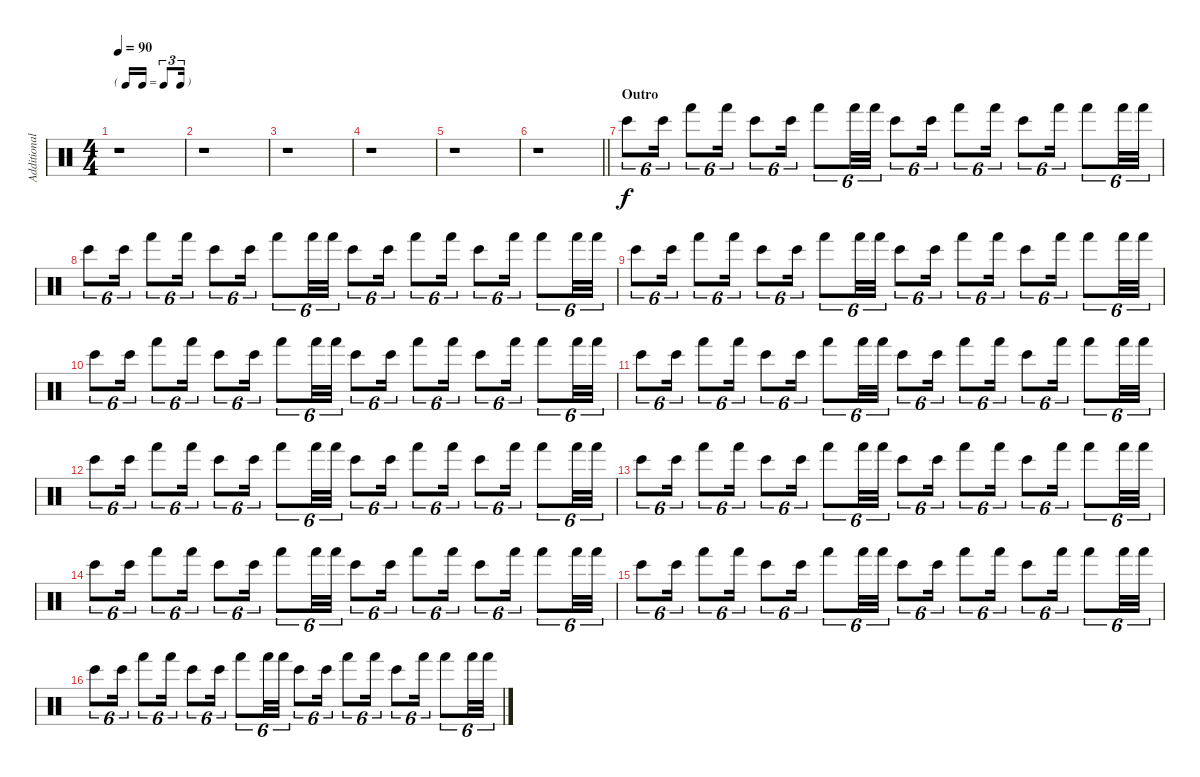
\track ("Additional Percussion" "Additional") {instrument percussion}
\staff {score}
\articulation defaults
\ts (4 4)
\tf triplet16th
\tempo 90
\clef neutral
\ks c
r.1{dy f} |
r.1 |
r.1 |
r.1 |
r.1 |
\barLineRight lightlight
r.1 |
\section ("" "Outro")
"Bongo High (hit)".8{tu (6 4)} "Bongo High (hit)".16{tu (6 4)} "Hand (hit)".8{tu (6 4)} "Hand (hit)".16{tu (6 4)} "Bongo High (hit)".8{tu (6 4)} "Bongo High (hit)".16{tu (6 4)} "Hand (hit)".8{tu (6 4)} "Hand (hit)".32{tu (6 4)} "Hand (hit)".32{tu (6 4)} "Bongo High (hit)".8{tu (6 4)} "Bongo High (hit)".16{tu (6 4)} "Hand (hit)".8{tu (6 4)} "Hand (hit)".16{tu (6 4)} "Bongo High (hit)".8{tu (6 4)} "Hand (hit)".16{tu (6 4)} "Hand (hit)".8{tu (6 4)} "Hand (hit)".32{tu (6 4)} "Hand (hit)".32{tu (6 4)} |
"Bongo High (hit)".8{tu (6 4)} "Bongo High (hit)".16{tu (6 4)} "Hand (hit)".8{tu (6 4)} "Hand (hit)".16{tu (6 4)} "Bongo High (hit)".8{tu (6 4)} "Bongo High (hit)".16{tu (6 4)} "Hand (hit)".8{tu (6 4)} "Hand (hit)".32{tu (6 4)} "Hand (hit)".32{tu (6 4)} "Bongo High (hit)".8{tu (6 4)} "Bongo High (hit)".16{tu (6 4)} "Hand (hit)".8{tu (6 4)} "Hand (hit)".16{tu (6 4)} "Bongo High (hit)".8{tu (6 4)} "Hand (hit)".16{tu (6 4)} "Hand (hit)".8{tu (6 4)} "Hand (hit)".32{tu (6 4)} "Hand (hit)".32{tu (6 4)} |
"Bongo High (hit)".8{tu (6 4)} "Bongo High (hit)".16{tu (6 4)} "Hand (hit)".8{tu (6 4)} "Hand (hit)".16{tu (6 4)} "Bongo High (hit)".8{tu (6 4)} "Bongo High (hit)".16{tu (6 4)} "Hand (hit)".8{tu (6 4)} "Hand (hit)".32{tu (6 4)} "Hand (hit)".32{tu (6 4)} "Bongo High (hit)".8{tu (6 4)} "Bongo High (hit)".16{tu (6 4)} "Hand (hit)".8{tu (6 4)} "Hand (hit)".16{tu (6 4)} "Bongo High (hit)".8{tu (6 4)} "Hand (hit)".16{tu (6 4)} "Hand (hit)".8{tu (6 4)} "Hand (hit)".32{tu (6 4)} "Hand (hit)".32{tu (6 4)} |
"Bongo High (hit)".8{tu (6 4)} "Bongo High (hit)".16{tu (6 4)} "Hand (hit)".8{tu (6 4)} "Hand (hit)".16{tu (6 4)} "Bongo High (hit)".8{tu (6 4)} "Bongo High (hit)".16{tu (6 4)} "Hand (hit)".8{tu (6 4)} "Hand (hit)".32{tu (6 4)} "Hand (hit)".32{tu (6 4)} "Bongo High (hit)".8{tu (6 4)} "Bongo High (hit)".16{tu (6 4)} "Hand (hit)".8{tu (6 4)} "Hand (hit)".16{tu (6 4)} "Bongo High (hit)".8{tu (6 4)} "Hand (hit)".16{tu (6 4)} "Hand (hit)".8{tu (6 4)} "Hand (hit)".32{tu (6 4)} "Hand (hit)".32{tu (6 4)} |
"Bongo High (hit)".8{tu (6 4)} "Bongo High (hit)".16{tu (6 4)} "Hand (hit)".8{tu (6 4)} "Hand (hit)".16{tu (6 4)} "Bongo High (hit)".8{tu (6 4)} "Bongo High (hit)".16{tu (6 4)} "Hand (hit)".8{tu (6 4)} "Hand (hit)".32{tu (6 4)} "Hand (hit)".32{tu (6 4)} "Bongo High (hit)".8{tu (6 4)} "Bongo High (hit)".16{tu (6 4)} "Hand (hit)".8{tu (6 4)} "Hand (hit)".16{tu (6 4)} "Bongo High (hit)".8{tu (6 4)} "Hand (hit)".16{tu (6 4)} "Hand (hit)".8{tu (6 4)} "Hand (hit)".32{tu (6 4)} "Hand (hit)".32{tu (6 4)} |
"Bongo High (hit)".8{tu (6 4)} "Bongo High (hit)".16{tu (6 4)} "Hand (hit)".8{tu (6 4)} "Hand (hit)".16{tu (6 4)} "Bongo High (hit)".8{tu (6 4)} "Bongo High (hit)".16{tu (6 4)} "Hand (hit)".8{tu (6 4)} "Hand (hit)".32{tu (6 4)} "Hand (hit)".32{tu (6 4)} "Bongo High (hit)".8{tu (6 4)} "Bongo High (hit)".16{tu (6 4)} "Hand (hit)".8{tu (6 4)} "Hand (hit)".16{tu (6 4)} "Bongo High (hit)".8{tu (6 4)} "Hand (hit)".16{tu (6 4)} "Hand (hit)".8{tu (6 4)} "Hand (hit)".32{tu (6 4)} "Hand (hit)".32{tu (6 4)} |
"Bongo High (hit)".8{tu (6 4)} "Bongo High (hit)".16{tu (6 4)} "Hand (hit)".8{tu (6 4)} "Hand (hit)".16{tu (6 4)} "Bongo High (hit)".8{tu (6 4)} "Bongo High (hit)".16{tu (6 4)} "Hand (hit)".8{tu (6 4)} "Hand (hit)".32{tu (6 4)} "Hand (hit)".32{tu (6 4)} "Bongo High (hit)".8{tu (6 4)} "Bongo High (hit)".16{tu (6 4)} "Hand (hit)".8{tu (6 4)} "Hand (hit)".16{tu (6 4)} "Bongo High (hit)".8{tu (6 4)} "Hand (hit)".16{tu (6 4)} "Hand (hit)".8{tu (6 4)} "Hand (hit)".32{tu (6 4)} "Hand (hit)".32{tu (6 4)} |
"Bongo High (hit)".8{tu (6 4)} "Bongo High (hit)".16{tu (6 4)} "Hand (hit)".8{tu (6 4)} "Hand (hit)".16{tu (6 4)} "Bongo High (hit)".8{tu (6 4)} "Bongo High (hit)".16{tu (6 4)} "Hand (hit)".8{tu (6 4)} "Hand (hit)".32{tu (6 4)} "Hand (hit)".32{tu (6 4)} "Bongo High (hit)".8{tu (6 4)} "Bongo High (hit)".16{tu (6 4)} "Hand (hit)".8{tu (6 4)} "Hand (hit)".16{tu (6 4)} "Bongo High (hit)".8{tu (6 4)} "Hand (hit)".16{tu (6 4)} "Hand (hit)".8{tu (6 4)} "Hand (hit)".32{tu (6 4)} "Hand (hit)".32{tu (6 4)} |
"Bongo High (hit)".8{tu (6 4)} "Bongo High (hit)".16{tu (6 4)} "Hand (hit)".8{tu (6 4)} "Hand (hit)".16{tu (6 4)} "Bongo High (hit)".8{tu (6 4)} "Bongo High (hit)".16{tu (6 4)} "Hand (hit)".8{tu (6 4)} "Hand (hit)".32{tu (6 4)} "Hand (hit)".32{tu (6 4)} "Bongo High (hit)".8{tu (6 4)} "Bongo High (hit)".16{tu (6 4)} "Hand (hit)".8{tu (6 4)} "Hand (hit)".16{tu (6 4)} "Bongo High (hit)".8{tu (6 4)} "Hand (hit)".16{tu (6 4)} "Hand (hit)".8{tu (6 4)} "Hand (hit)".32{tu (6 4)} "Hand (hit)".32{tu (6 4)} |
"Bongo High (hit)".8{tu (6 4)} "Bongo High (hit)".16{tu (6 4)} "Hand (hit)".8{tu (6 4)} "Hand (hit)".16{tu (6 4)} "Bongo High (hit)".8{tu (6 4)} "Bongo High (hit)".16{tu (6 4)} "Hand (hit)".8{tu (6 4)} "Hand (hit)".32{tu (6 4)} "Hand (hit)".32{tu (6 4)} "Bongo High (hit)".8{tu (6 4)} "Bongo High (hit)".16{tu (6 4)} "Hand (hit)".8{tu (6 4)} "Hand (hit)".16{tu (6 4)} "Bongo High (hit)".8{tu (6 4)} "Hand (hit)".16{tu (6 4)} "Hand (hit)".8{tu (6 4)} "Hand (hit)".32{tu (6 4)} "Hand (hit)".32{tu (6 4)}
